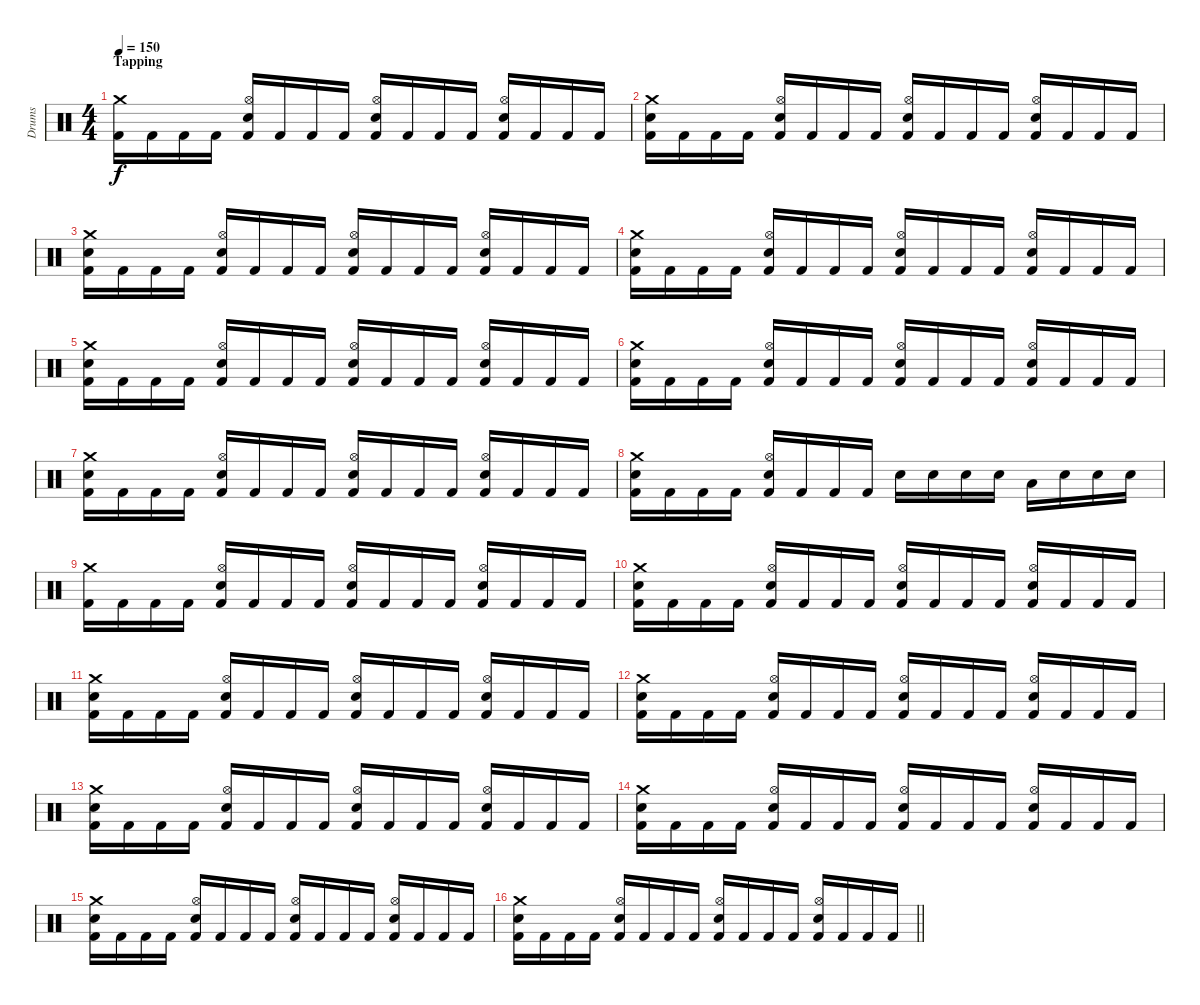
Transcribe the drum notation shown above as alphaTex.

\track ("Drums" "Drums") {instrument percussion}
\staff {score}
\articulation defaults
\ts (4 4)
\section ("" "Tapping")
\tempo 150
\clef neutral
\ks c
("Crash medium (hit)" "Kick (hit) 2").16{dy f} "Kick (hit) 2".16 "Kick (hit) 2".16 "Kick (hit) 2".16 ("Hi-Hat (open)" "Snare (hit) 2" "Kick (hit) 2").16 "Kick (hit) 2".16 "Kick (hit) 2".16 "Kick (hit) 2".16 ("Hi-Hat (open)" "Snare (hit) 2" "Kick (hit) 2").16 "Kick (hit) 2".16 "Kick (hit) 2".16 "Kick (hit) 2".16 ("Hi-Hat (open)" "Snare (hit) 2" "Kick (hit) 2").16 "Kick (hit) 2".16 "Kick (hit) 2".16 "Kick (hit) 2".16 |
("Crash medium (hit)" "Snare (hit) 2" "Kick (hit) 2").16 "Kick (hit) 2".16 "Kick (hit) 2".16 "Kick (hit) 2".16 ("Hi-Hat (open)" "Snare (hit) 2" "Kick (hit) 2").16 "Kick (hit) 2".16 "Kick (hit) 2".16 "Kick (hit) 2".16 ("Hi-Hat (open)" "Snare (hit) 2" "Kick (hit) 2").16 "Kick (hit) 2".16 "Kick (hit) 2".16 "Kick (hit) 2".16 ("Hi-Hat (open)" "Snare (hit) 2" "Kick (hit) 2").16 "Kick (hit) 2".16 "Kick (hit) 2".16 "Kick (hit) 2".16 |
("Crash medium (hit)" "Snare (hit) 2" "Kick (hit) 2").16 "Kick (hit) 2".16 "Kick (hit) 2".16 "Kick (hit) 2".16 ("Hi-Hat (open)" "Snare (hit) 2" "Kick (hit) 2").16 "Kick (hit) 2".16 "Kick (hit) 2".16 "Kick (hit) 2".16 ("Hi-Hat (open)" "Snare (hit) 2" "Kick (hit) 2").16 "Kick (hit) 2".16 "Kick (hit) 2".16 "Kick (hit) 2".16 ("Hi-Hat (open)" "Snare (hit) 2" "Kick (hit) 2").16 "Kick (hit) 2".16 "Kick (hit) 2".16 "Kick (hit) 2".16 |
("Crash medium (hit)" "Snare (hit) 2" "Kick (hit) 2").16 "Kick (hit) 2".16 "Kick (hit) 2".16 "Kick (hit) 2".16 ("Hi-Hat (open)" "Snare (hit) 2" "Kick (hit) 2").16 "Kick (hit) 2".16 "Kick (hit) 2".16 "Kick (hit) 2".16 ("Hi-Hat (open)" "Snare (hit) 2" "Kick (hit) 2").16 "Kick (hit) 2".16 "Kick (hit) 2".16 "Kick (hit) 2".16 ("Hi-Hat (open)" "Snare (hit) 2" "Kick (hit) 2").16 "Kick (hit) 2".16 "Kick (hit) 2".16 "Kick (hit) 2".16 |
("Crash medium (hit)" "Snare (hit) 2" "Kick (hit) 2").16 "Kick (hit) 2".16 "Kick (hit) 2".16 "Kick (hit) 2".16 ("Hi-Hat (open)" "Snare (hit) 2" "Kick (hit) 2").16 "Kick (hit) 2".16 "Kick (hit) 2".16 "Kick (hit) 2".16 ("Hi-Hat (open)" "Snare (hit) 2" "Kick (hit) 2").16 "Kick (hit) 2".16 "Kick (hit) 2".16 "Kick (hit) 2".16 ("Hi-Hat (open)" "Snare (hit) 2" "Kick (hit) 2").16 "Kick (hit) 2".16 "Kick (hit) 2".16 "Kick (hit) 2".16 |
("Crash medium (hit)" "Snare (hit) 2" "Kick (hit) 2").16 "Kick (hit) 2".16 "Kick (hit) 2".16 "Kick (hit) 2".16 ("Hi-Hat (open)" "Snare (hit) 2" "Kick (hit) 2").16 "Kick (hit) 2".16 "Kick (hit) 2".16 "Kick (hit) 2".16 ("Hi-Hat (open)" "Snare (hit) 2" "Kick (hit) 2").16 "Kick (hit) 2".16 "Kick (hit) 2".16 "Kick (hit) 2".16 ("Hi-Hat (open)" "Snare (hit) 2" "Kick (hit) 2").16 "Kick (hit) 2".16 "Kick (hit) 2".16 "Kick (hit) 2".16 |
("Crash medium (hit)" "Snare (hit) 2" "Kick (hit) 2").16 "Kick (hit) 2".16 "Kick (hit) 2".16 "Kick (hit) 2".16 ("Hi-Hat (open)" "Snare (hit) 2" "Kick (hit) 2").16 "Kick (hit) 2".16 "Kick (hit) 2".16 "Kick (hit) 2".16 ("Hi-Hat (open)" "Snare (hit) 2" "Kick (hit) 2").16 "Kick (hit) 2".16 "Kick (hit) 2".16 "Kick (hit) 2".16 ("Hi-Hat (open)" "Snare (hit) 2" "Kick (hit) 2").16 "Kick (hit) 2".16 "Kick (hit) 2".16 "Kick (hit) 2".16 |
("Crash medium (hit)" "Snare (hit) 2" "Kick (hit) 2").16 "Kick (hit) 2".16 "Kick (hit) 2".16 "Kick (hit) 2".16 ("Hi-Hat (open)" "Snare (hit) 2" "Kick (hit) 2").16 "Kick (hit) 2".16 "Kick (hit) 2".16 "Kick (hit) 2".16 "Snare (hit) 2".16 "Snare (hit) 2".16 "Snare (hit) 2".16 "Snare (hit) 2".16 "Low Tom (hit)".16 "Snare (hit) 2".16 "Snare (hit) 2".16 "Snare (hit) 2".16 |
("Crash medium (hit)" "Kick (hit) 2").16 "Kick (hit) 2".16 "Kick (hit) 2".16 "Kick (hit) 2".16 ("Hi-Hat (open)" "Snare (hit) 2" "Kick (hit) 2").16 "Kick (hit) 2".16 "Kick (hit) 2".16 "Kick (hit) 2".16 ("Hi-Hat (open)" "Snare (hit) 2" "Kick (hit) 2").16 "Kick (hit) 2".16 "Kick (hit) 2".16 "Kick (hit) 2".16 ("Hi-Hat (open)" "Snare (hit) 2" "Kick (hit) 2").16 "Kick (hit) 2".16 "Kick (hit) 2".16 "Kick (hit) 2".16 |
("Crash medium (hit)" "Snare (hit) 2" "Kick (hit) 2").16 "Kick (hit) 2".16 "Kick (hit) 2".16 "Kick (hit) 2".16 ("Hi-Hat (open)" "Snare (hit) 2" "Kick (hit) 2").16 "Kick (hit) 2".16 "Kick (hit) 2".16 "Kick (hit) 2".16 ("Hi-Hat (open)" "Snare (hit) 2" "Kick (hit) 2").16 "Kick (hit) 2".16 "Kick (hit) 2".16 "Kick (hit) 2".16 ("Hi-Hat (open)" "Snare (hit) 2" "Kick (hit) 2").16 "Kick (hit) 2".16 "Kick (hit) 2".16 "Kick (hit) 2".16 |
("Crash medium (hit)" "Snare (hit) 2" "Kick (hit) 2").16 "Kick (hit) 2".16 "Kick (hit) 2".16 "Kick (hit) 2".16 ("Hi-Hat (open)" "Snare (hit) 2" "Kick (hit) 2").16 "Kick (hit) 2".16 "Kick (hit) 2".16 "Kick (hit) 2".16 ("Hi-Hat (open)" "Snare (hit) 2" "Kick (hit) 2").16 "Kick (hit) 2".16 "Kick (hit) 2".16 "Kick (hit) 2".16 ("Hi-Hat (open)" "Snare (hit) 2" "Kick (hit) 2").16 "Kick (hit) 2".16 "Kick (hit) 2".16 "Kick (hit) 2".16 |
("Crash medium (hit)" "Snare (hit) 2" "Kick (hit) 2").16 "Kick (hit) 2".16 "Kick (hit) 2".16 "Kick (hit) 2".16 ("Hi-Hat (open)" "Snare (hit) 2" "Kick (hit) 2").16 "Kick (hit) 2".16 "Kick (hit) 2".16 "Kick (hit) 2".16 ("Hi-Hat (open)" "Snare (hit) 2" "Kick (hit) 2").16 "Kick (hit) 2".16 "Kick (hit) 2".16 "Kick (hit) 2".16 ("Hi-Hat (open)" "Snare (hit) 2" "Kick (hit) 2").16 "Kick (hit) 2".16 "Kick (hit) 2".16 "Kick (hit) 2".16 |
("Crash medium (hit)" "Snare (hit) 2" "Kick (hit) 2").16 "Kick (hit) 2".16 "Kick (hit) 2".16 "Kick (hit) 2".16 ("Hi-Hat (open)" "Snare (hit) 2" "Kick (hit) 2").16 "Kick (hit) 2".16 "Kick (hit) 2".16 "Kick (hit) 2".16 ("Hi-Hat (open)" "Snare (hit) 2" "Kick (hit) 2").16 "Kick (hit) 2".16 "Kick (hit) 2".16 "Kick (hit) 2".16 ("Hi-Hat (open)" "Snare (hit) 2" "Kick (hit) 2").16 "Kick (hit) 2".16 "Kick (hit) 2".16 "Kick (hit) 2".16 |
("Crash medium (hit)" "Snare (hit) 2" "Kick (hit) 2").16 "Kick (hit) 2".16 "Kick (hit) 2".16 "Kick (hit) 2".16 ("Hi-Hat (open)" "Snare (hit) 2" "Kick (hit) 2").16 "Kick (hit) 2".16 "Kick (hit) 2".16 "Kick (hit) 2".16 ("Hi-Hat (open)" "Snare (hit) 2" "Kick (hit) 2").16 "Kick (hit) 2".16 "Kick (hit) 2".16 "Kick (hit) 2".16 ("Hi-Hat (open)" "Snare (hit) 2" "Kick (hit) 2").16 "Kick (hit) 2".16 "Kick (hit) 2".16 "Kick (hit) 2".16 |
("Crash medium (hit)" "Snare (hit) 2" "Kick (hit) 2").16 "Kick (hit) 2".16 "Kick (hit) 2".16 "Kick (hit) 2".16 ("Hi-Hat (open)" "Snare (hit) 2" "Kick (hit) 2").16 "Kick (hit) 2".16 "Kick (hit) 2".16 "Kick (hit) 2".16 ("Hi-Hat (open)" "Snare (hit) 2" "Kick (hit) 2").16 "Kick (hit) 2".16 "Kick (hit) 2".16 "Kick (hit) 2".16 ("Hi-Hat (open)" "Snare (hit) 2" "Kick (hit) 2").16 "Kick (hit) 2".16 "Kick (hit) 2".16 "Kick (hit) 2".16 |
\barLineRight lightlight
("Crash medium (hit)" "Snare (hit) 2" "Kick (hit) 2").16 "Kick (hit) 2".16 "Kick (hit) 2".16 "Kick (hit) 2".16 ("Hi-Hat (open)" "Snare (hit) 2" "Kick (hit) 2").16 "Kick (hit) 2".16 "Kick (hit) 2".16 "Kick (hit) 2".16 ("Hi-Hat (open)" "Snare (hit) 2" "Kick (hit) 2").16 "Kick (hit) 2".16 "Kick (hit) 2".16 "Kick (hit) 2".16 ("Hi-Hat (open)" "Snare (hit) 2" "Kick (hit) 2").16 "Kick (hit) 2".16 "Kick (hit) 2".16 "Kick (hit) 2".16
